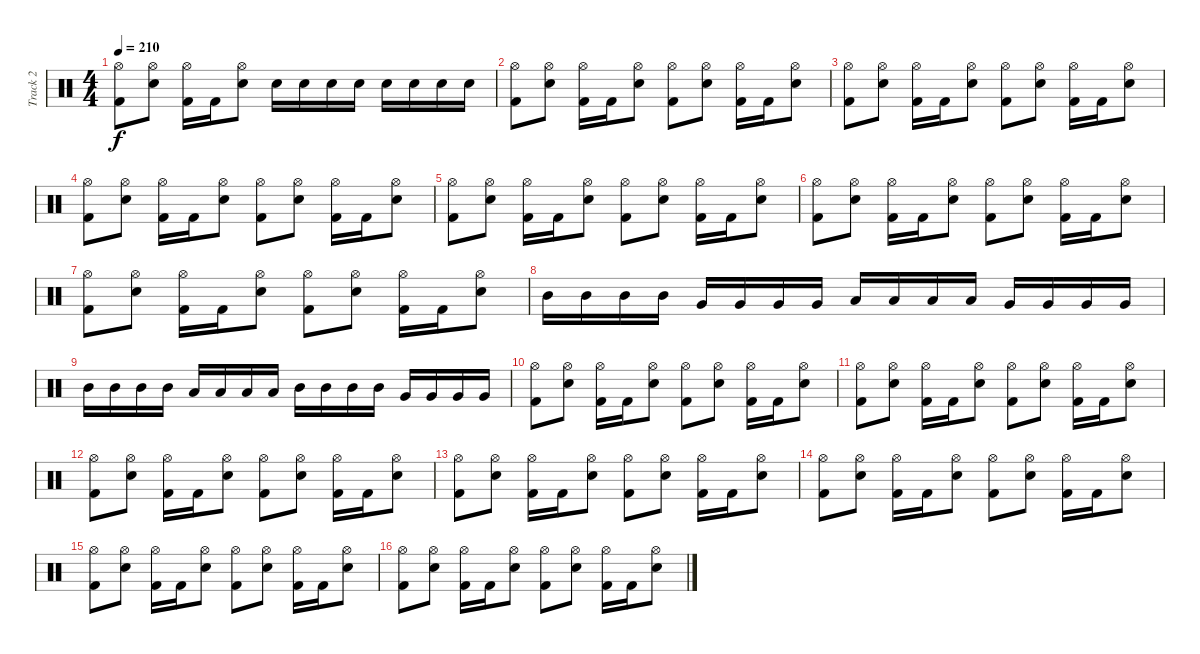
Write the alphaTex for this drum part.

\track ("Track 2" "Track 2") {instrument percussion}
\staff {score}
\articulation defaults
\ts (4 4)
\tempo 210
\clef neutral
\ks c
("Hi-Hat (open)" "Kick (hit) 2").8{dy f} ("Hi-Hat (open)" "Snare (hit) 2").8 ("Hi-Hat (open)" "Kick (hit) 2").16 "Kick (hit) 2".16 ("Hi-Hat (open)" "Snare (hit) 2").8 "Snare (hit) 2".16 "Snare (hit) 2".16 "Snare (hit) 2".16 "Snare (hit) 2".16 "Snare (hit) 2".16 "Snare (hit) 2".16 "Snare (hit) 2".16 "Snare (hit) 2".16 |
("Hi-Hat (open)" "Kick (hit) 2").8 ("Hi-Hat (open)" "Snare (hit) 2").8 ("Hi-Hat (open)" "Kick (hit) 2").16 "Kick (hit) 2".16 ("Hi-Hat (open)" "Snare (hit) 2").8 ("Hi-Hat (open)" "Kick (hit) 2").8 ("Hi-Hat (open)" "Snare (hit) 2").8 ("Hi-Hat (open)" "Kick (hit) 2").16 "Kick (hit) 2".16 ("Hi-Hat (open)" "Snare (hit) 2").8 |
("Hi-Hat (open)" "Kick (hit) 2").8 ("Hi-Hat (open)" "Snare (hit) 2").8 ("Hi-Hat (open)" "Kick (hit) 2").16 "Kick (hit) 2".16 ("Hi-Hat (open)" "Snare (hit) 2").8 ("Hi-Hat (open)" "Kick (hit) 2").8 ("Hi-Hat (open)" "Snare (hit) 2").8 ("Hi-Hat (open)" "Kick (hit) 2").16 "Kick (hit) 2".16 ("Hi-Hat (open)" "Snare (hit) 2").8 |
("Hi-Hat (open)" "Kick (hit) 2").8 ("Hi-Hat (open)" "Snare (hit) 2").8 ("Hi-Hat (open)" "Kick (hit) 2").16 "Kick (hit) 2".16 ("Hi-Hat (open)" "Snare (hit) 2").8 ("Hi-Hat (open)" "Kick (hit) 2").8 ("Hi-Hat (open)" "Snare (hit) 2").8 ("Hi-Hat (open)" "Kick (hit) 2").16 "Kick (hit) 2".16 ("Hi-Hat (open)" "Snare (hit) 2").8 |
("Hi-Hat (open)" "Kick (hit) 2").8 ("Hi-Hat (open)" "Snare (hit) 2").8 ("Hi-Hat (open)" "Kick (hit) 2").16 "Kick (hit) 2".16 ("Hi-Hat (open)" "Snare (hit) 2").8 ("Hi-Hat (open)" "Kick (hit) 2").8 ("Hi-Hat (open)" "Snare (hit) 2").8 ("Hi-Hat (open)" "Kick (hit) 2").16 "Kick (hit) 2".16 ("Hi-Hat (open)" "Snare (hit) 2").8 |
("Hi-Hat (open)" "Kick (hit) 2").8 ("Hi-Hat (open)" "Snare (hit) 2").8 ("Hi-Hat (open)" "Kick (hit) 2").16 "Kick (hit) 2".16 ("Hi-Hat (open)" "Snare (hit) 2").8 ("Hi-Hat (open)" "Kick (hit) 2").8 ("Hi-Hat (open)" "Snare (hit) 2").8 ("Hi-Hat (open)" "Kick (hit) 2").16 "Kick (hit) 2".16 ("Hi-Hat (open)" "Snare (hit) 2").8 |
("Hi-Hat (open)" "Kick (hit) 2").8 ("Hi-Hat (open)" "Snare (hit) 2").8 ("Hi-Hat (open)" "Kick (hit) 2").16 "Kick (hit) 2".16 ("Hi-Hat (open)" "Snare (hit) 2").8 ("Hi-Hat (open)" "Kick (hit) 2").8 ("Hi-Hat (open)" "Snare (hit) 2").8 ("Hi-Hat (open)" "Kick (hit) 2").16 "Kick (hit) 2".16 ("Hi-Hat (open)" "Snare (hit) 2").8 |
"Mid Tom (hit)".16 "Mid Tom (hit)".16 "Mid Tom (hit)".16 "Mid Tom (hit)".16 "Very Low Tom (hit)".16 "Very Low Tom (hit)".16 "Very Low Tom (hit)".16 "Very Low Tom (hit)".16 "Low Tom (hit)".16 "Low Tom (hit)".16 "Low Tom (hit)".16 "Low Tom (hit)".16 "Very Low Tom (hit)".16 "Very Low Tom (hit)".16 "Very Low Tom (hit)".16 "Very Low Tom (hit)".16 |
"Mid Tom (hit)".16 "Mid Tom (hit)".16 "Mid Tom (hit)".16 "Mid Tom (hit)".16 "Low Tom (hit)".16 "Low Tom (hit)".16 "Low Tom (hit)".16 "Low Tom (hit)".16 "Mid Tom (hit)".16 "Mid Tom (hit)".16 "Mid Tom (hit)".16 "Mid Tom (hit)".16 "Very Low Tom (hit)".16 "Very Low Tom (hit)".16 "Very Low Tom (hit)".16 "Very Low Tom (hit)".16 |
("Hi-Hat (open)" "Kick (hit) 2").8 ("Hi-Hat (open)" "Snare (hit) 2").8 ("Hi-Hat (open)" "Kick (hit) 2").16 "Kick (hit) 2".16 ("Hi-Hat (open)" "Snare (hit) 2").8 ("Hi-Hat (open)" "Kick (hit) 2").8 ("Hi-Hat (open)" "Snare (hit) 2").8 ("Hi-Hat (open)" "Kick (hit) 2").16 "Kick (hit) 2".16 ("Hi-Hat (open)" "Snare (hit) 2").8 |
("Hi-Hat (open)" "Kick (hit) 2").8 ("Hi-Hat (open)" "Snare (hit) 2").8 ("Hi-Hat (open)" "Kick (hit) 2").16 "Kick (hit) 2".16 ("Hi-Hat (open)" "Snare (hit) 2").8 ("Hi-Hat (open)" "Kick (hit) 2").8 ("Hi-Hat (open)" "Snare (hit) 2").8 ("Hi-Hat (open)" "Kick (hit) 2").16 "Kick (hit) 2".16 ("Hi-Hat (open)" "Snare (hit) 2").8 |
("Hi-Hat (open)" "Kick (hit) 2").8 ("Hi-Hat (open)" "Snare (hit) 2").8 ("Hi-Hat (open)" "Kick (hit) 2").16 "Kick (hit) 2".16 ("Hi-Hat (open)" "Snare (hit) 2").8 ("Hi-Hat (open)" "Kick (hit) 2").8 ("Hi-Hat (open)" "Snare (hit) 2").8 ("Hi-Hat (open)" "Kick (hit) 2").16 "Kick (hit) 2".16 ("Hi-Hat (open)" "Snare (hit) 2").8 |
("Hi-Hat (open)" "Kick (hit) 2").8 ("Hi-Hat (open)" "Snare (hit) 2").8 ("Hi-Hat (open)" "Kick (hit) 2").16 "Kick (hit) 2".16 ("Hi-Hat (open)" "Snare (hit) 2").8 ("Hi-Hat (open)" "Kick (hit) 2").8 ("Hi-Hat (open)" "Snare (hit) 2").8 ("Hi-Hat (open)" "Kick (hit) 2").16 "Kick (hit) 2".16 ("Hi-Hat (open)" "Snare (hit) 2").8 |
("Hi-Hat (open)" "Kick (hit) 2").8 ("Hi-Hat (open)" "Snare (hit) 2").8 ("Hi-Hat (open)" "Kick (hit) 2").16 "Kick (hit) 2".16 ("Hi-Hat (open)" "Snare (hit) 2").8 ("Hi-Hat (open)" "Kick (hit) 2").8 ("Hi-Hat (open)" "Snare (hit) 2").8 ("Hi-Hat (open)" "Kick (hit) 2").16 "Kick (hit) 2".16 ("Hi-Hat (open)" "Snare (hit) 2").8 |
("Hi-Hat (open)" "Kick (hit) 2").8 ("Hi-Hat (open)" "Snare (hit) 2").8 ("Hi-Hat (open)" "Kick (hit) 2").16 "Kick (hit) 2".16 ("Hi-Hat (open)" "Snare (hit) 2").8 ("Hi-Hat (open)" "Kick (hit) 2").8 ("Hi-Hat (open)" "Snare (hit) 2").8 ("Hi-Hat (open)" "Kick (hit) 2").16 "Kick (hit) 2".16 ("Hi-Hat (open)" "Snare (hit) 2").8 |
("Hi-Hat (open)" "Kick (hit) 2").8 ("Hi-Hat (open)" "Snare (hit) 2").8 ("Hi-Hat (open)" "Kick (hit) 2").16 "Kick (hit) 2".16 ("Hi-Hat (open)" "Snare (hit) 2").8 ("Hi-Hat (open)" "Kick (hit) 2").8 ("Hi-Hat (open)" "Snare (hit) 2").8 ("Hi-Hat (open)" "Kick (hit) 2").16 "Kick (hit) 2".16 ("Hi-Hat (open)" "Snare (hit) 2").8
